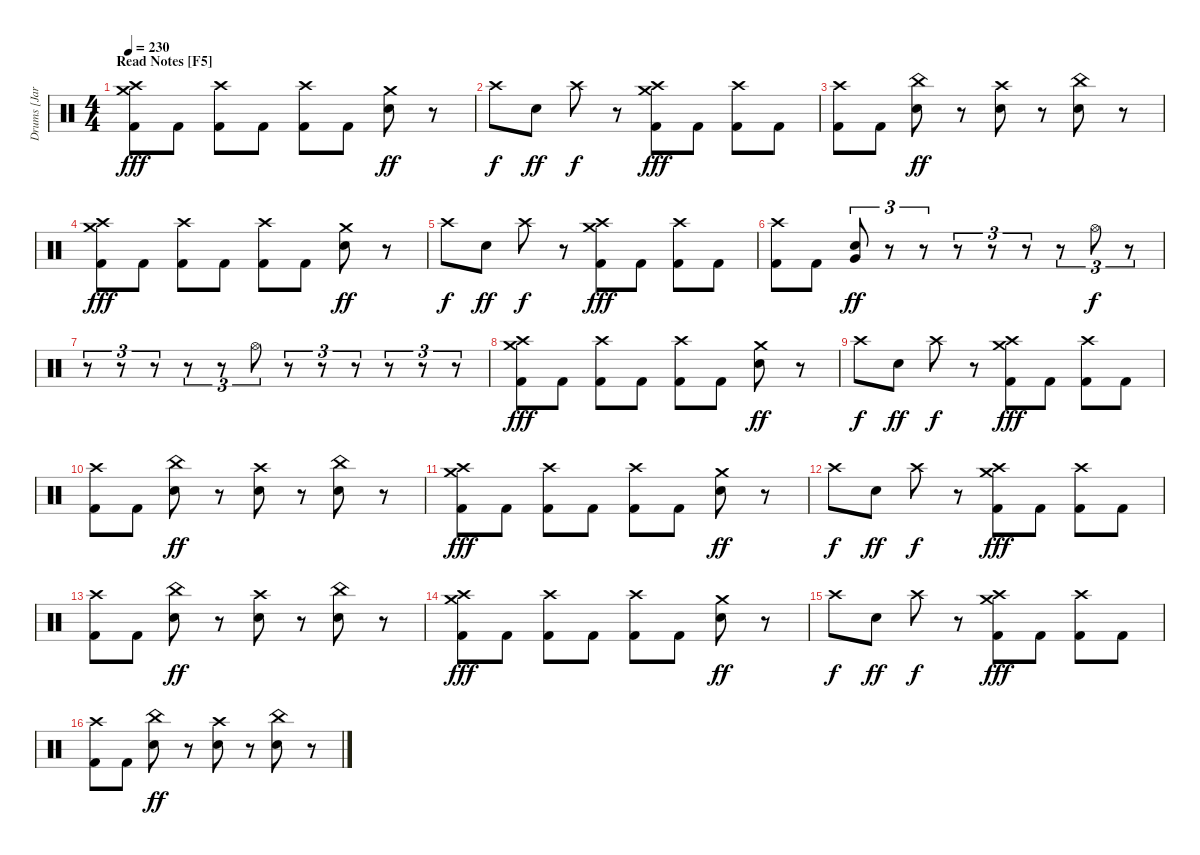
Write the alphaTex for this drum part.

\track ("Drums [Jared]" "Drums [Jar") {instrument percussion}
\staff {score}
\articulation defaults
\ts (4 4)
\section ("" "Read Notes [F5]")
\tempo 230
\clef neutral
\ks c
("Crash medium (hit)" "Crash high (hit)" "Kick (hit) 2").8{dy fff} "Kick (hit) 2".8 ("Crash high (hit)" "Kick (hit) 2").8 "Kick (hit) 2".8 ("Crash high (hit)" "Kick (hit) 2").8 "Kick (hit) 2".8 ("Crash medium (hit)" "Electric Snare (hit)").8{dy ff} r.8 |
"Crash high (hit)".8{dy f} "Electric Snare (hit)".8{dy ff} "Crash high (hit)".8{dy f} r.8 ("Crash medium (hit)" "Crash high (hit)" "Kick (hit) 2").8{dy fff} "Kick (hit) 2".8 ("Crash high (hit)" "Kick (hit) 2").8 "Kick (hit) 2".8 |
("Crash high (hit)" "Kick (hit) 2").8 "Kick (hit) 2".8 ("China (hit)" "Electric Snare (hit)").8{dy ff} r.8 ("Crash high (hit)" "Electric Snare (hit)").8 r.8 ("China (hit)" "Electric Snare (hit)").8 r.8 |
("Crash medium (hit)" "Crash high (hit)" "Kick (hit) 2").8{dy fff} "Kick (hit) 2".8 ("Crash high (hit)" "Kick (hit) 2").8 "Kick (hit) 2".8 ("Crash high (hit)" "Kick (hit) 2").8 "Kick (hit) 2".8 ("Crash medium (hit)" "Electric Snare (hit)").8{dy ff} r.8 |
"Crash high (hit)".8{dy f} "Electric Snare (hit)".8{dy ff} "Crash high (hit)".8{dy f} r.8 ("Crash medium (hit)" "Crash high (hit)" "Kick (hit) 2").8{dy fff} "Kick (hit) 2".8 ("Crash high (hit)" "Kick (hit) 2").8 "Kick (hit) 2".8 |
("Crash high (hit)" "Kick (hit) 2").8 "Kick (hit) 2".8 ("Very Low Tom (hit)" "Electric Snare (hit)").8{tu (3 2) dy ff} r.8{tu (3 2)} r.8{tu (3 2)} r.8{tu (3 2)} r.8{tu (3 2)} r.8{tu (3 2)} r.8{tu (3 2)} "Hi-Hat (open)".8{tu (3 2) dy f} r.8{tu (3 2)} |
r.8{tu (3 2)} r.8{tu (3 2)} r.8{tu (3 2)} r.8{tu (3 2)} r.8{tu (3 2)} "Hi-Hat (open)".8{tu (3 2)} r.8{tu (3 2)} r.8{tu (3 2)} r.8{tu (3 2)} r.8{tu (3 2)} r.8{tu (3 2)} r.8{tu (3 2)} |
("Crash medium (hit)" "Crash high (hit)" "Kick (hit) 2").8{dy fff} "Kick (hit) 2".8 ("Crash high (hit)" "Kick (hit) 2").8 "Kick (hit) 2".8 ("Crash high (hit)" "Kick (hit) 2").8 "Kick (hit) 2".8 ("Crash medium (hit)" "Electric Snare (hit)").8{dy ff} r.8 |
"Crash high (hit)".8{dy f} "Electric Snare (hit)".8{dy ff} "Crash high (hit)".8{dy f} r.8 ("Crash medium (hit)" "Crash high (hit)" "Kick (hit) 2").8{dy fff} "Kick (hit) 2".8 ("Crash high (hit)" "Kick (hit) 2").8 "Kick (hit) 2".8 |
("Crash high (hit)" "Kick (hit) 2").8 "Kick (hit) 2".8 ("China (hit)" "Electric Snare (hit)").8{dy ff} r.8 ("Crash high (hit)" "Electric Snare (hit)").8 r.8 ("China (hit)" "Electric Snare (hit)").8 r.8 |
("Crash medium (hit)" "Crash high (hit)" "Kick (hit) 2").8{dy fff} "Kick (hit) 2".8 ("Crash high (hit)" "Kick (hit) 2").8 "Kick (hit) 2".8 ("Crash high (hit)" "Kick (hit) 2").8 "Kick (hit) 2".8 ("Crash medium (hit)" "Electric Snare (hit)").8{dy ff} r.8 |
"Crash high (hit)".8{dy f} "Electric Snare (hit)".8{dy ff} "Crash high (hit)".8{dy f} r.8 ("Crash medium (hit)" "Crash high (hit)" "Kick (hit) 2").8{dy fff} "Kick (hit) 2".8 ("Crash high (hit)" "Kick (hit) 2").8 "Kick (hit) 2".8 |
("Crash high (hit)" "Kick (hit) 2").8 "Kick (hit) 2".8 ("China (hit)" "Electric Snare (hit)").8{dy ff} r.8 ("Crash high (hit)" "Electric Snare (hit)").8 r.8 ("China (hit)" "Electric Snare (hit)").8 r.8 |
("Crash medium (hit)" "Crash high (hit)" "Kick (hit) 2").8{dy fff} "Kick (hit) 2".8 ("Crash high (hit)" "Kick (hit) 2").8 "Kick (hit) 2".8 ("Crash high (hit)" "Kick (hit) 2").8 "Kick (hit) 2".8 ("Crash medium (hit)" "Electric Snare (hit)").8{dy ff} r.8 |
"Crash high (hit)".8{dy f} "Electric Snare (hit)".8{dy ff} "Crash high (hit)".8{dy f} r.8 ("Crash medium (hit)" "Crash high (hit)" "Kick (hit) 2").8{dy fff} "Kick (hit) 2".8 ("Crash high (hit)" "Kick (hit) 2").8 "Kick (hit) 2".8 |
("Crash high (hit)" "Kick (hit) 2").8 "Kick (hit) 2".8 ("China (hit)" "Electric Snare (hit)").8{dy ff} r.8 ("Crash high (hit)" "Electric Snare (hit)").8 r.8 ("China (hit)" "Electric Snare (hit)").8 r.8
